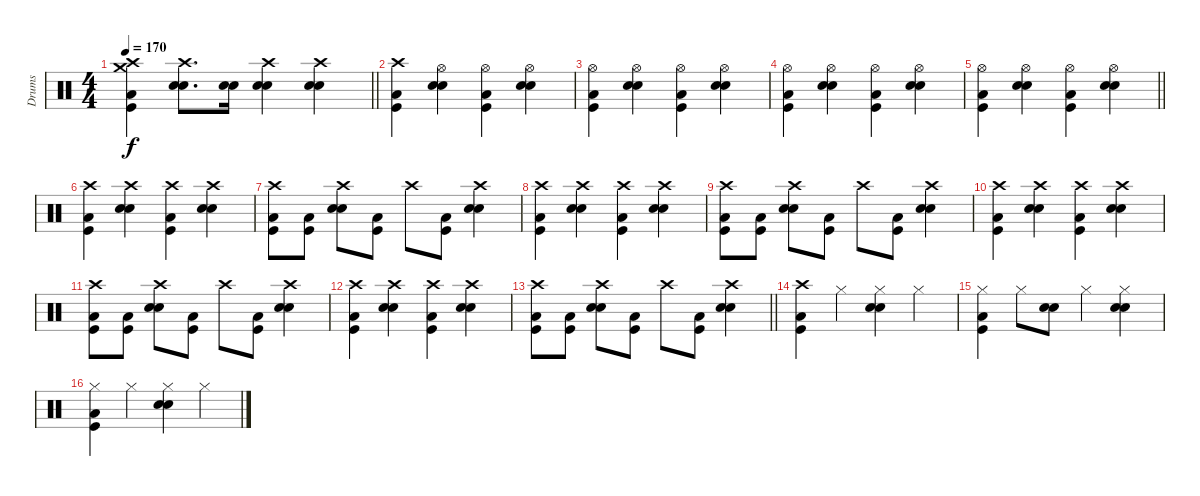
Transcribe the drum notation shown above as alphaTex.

\track ("Drums" "Drums") {instrument percussion}
\staff {score}
\articulation defaults
\ts (4 4)
\tempo 170
\clef neutral
\barLineRight lightlight
\ks c
("Crash high (hit)" "Crash medium (hit)" "Low Tom (hit)" "Kick (hit)").4{dy f} ("Crash high (hit)" "Snare (hit) 2" "Electric Snare (hit)").8{d} ("Snare (hit) 2" "Electric Snare (hit)").16 ("Crash high (hit)" "Snare (hit) 2" "Electric Snare (hit)").4 ("Crash high (hit)" "Snare (hit) 2" "Electric Snare (hit)").4 |
("Crash high (hit)" "Kick (hit)" "Low Tom (hit)").4 ("Hi-Hat (open)" "Snare (hit) 2" "Electric Snare (hit)").4 ("Hi-Hat (open)" "Kick (hit)" "Low Tom (hit)").4 ("Hi-Hat (open)" "Snare (hit) 2" "Electric Snare (hit)").4 |
("Hi-Hat (open)" "Kick (hit)" "Low Tom (hit)").4 ("Hi-Hat (open)" "Snare (hit) 2" "Electric Snare (hit)").4 ("Hi-Hat (open)" "Kick (hit)" "Low Tom (hit)").4 ("Hi-Hat (open)" "Snare (hit) 2" "Electric Snare (hit)").4 |
("Hi-Hat (open)" "Kick (hit)" "Low Tom (hit)").4 ("Hi-Hat (open)" "Snare (hit) 2" "Electric Snare (hit)").4 ("Hi-Hat (open)" "Kick (hit)" "Low Tom (hit)").4 ("Hi-Hat (open)" "Snare (hit) 2" "Electric Snare (hit)").4 |
\barLineRight lightlight
("Hi-Hat (open)" "Kick (hit)" "Low Tom (hit)").4 ("Hi-Hat (open)" "Snare (hit) 2" "Electric Snare (hit)").4 ("Hi-Hat (open)" "Kick (hit)" "Low Tom (hit)").4 ("Hi-Hat (open)" "Snare (hit) 2" "Electric Snare (hit)").4 |
("Crash high (hit)" "Kick (hit)" "Low Tom (hit)").4 ("Crash high (hit)" "Snare (hit) 2" "Electric Snare (hit)").4 ("Crash high (hit)" "Kick (hit)" "Low Tom (hit)").4 ("Crash high (hit)" "Snare (hit) 2" "Electric Snare (hit)").4 |
("Crash high (hit)" "Kick (hit)" "Low Tom (hit)").8 ("Kick (hit)" "Low Tom (hit)").8 ("Crash high (hit)" "Snare (hit) 2" "Electric Snare (hit)").8 ("Kick (hit)" "Low Tom (hit)").8 "Crash high (hit)".8 ("Kick (hit)" "Low Tom (hit)").8 ("Crash high (hit)" "Snare (hit) 2" "Electric Snare (hit)").4 |
("Crash high (hit)" "Kick (hit)" "Low Tom (hit)").4 ("Crash high (hit)" "Snare (hit) 2" "Electric Snare (hit)").4 ("Crash high (hit)" "Kick (hit)" "Low Tom (hit)").4 ("Crash high (hit)" "Snare (hit) 2" "Electric Snare (hit)").4 |
("Crash high (hit)" "Kick (hit)" "Low Tom (hit)").8 ("Kick (hit)" "Low Tom (hit)").8 ("Crash high (hit)" "Snare (hit) 2" "Electric Snare (hit)").8 ("Kick (hit)" "Low Tom (hit)").8 "Crash high (hit)".8 ("Kick (hit)" "Low Tom (hit)").8 ("Crash high (hit)" "Snare (hit) 2" "Electric Snare (hit)").4 |
("Crash high (hit)" "Kick (hit)" "Low Tom (hit)").4 ("Crash high (hit)" "Snare (hit) 2" "Electric Snare (hit)").4 ("Crash high (hit)" "Kick (hit)" "Low Tom (hit)").4 ("Crash high (hit)" "Snare (hit) 2" "Electric Snare (hit)").4 |
("Crash high (hit)" "Kick (hit)" "Low Tom (hit)").8 ("Kick (hit)" "Low Tom (hit)").8 ("Crash high (hit)" "Snare (hit) 2" "Electric Snare (hit)").8 ("Kick (hit)" "Low Tom (hit)").8 "Crash high (hit)".8 ("Kick (hit)" "Low Tom (hit)").8 ("Crash high (hit)" "Snare (hit) 2" "Electric Snare (hit)").4 |
("Crash high (hit)" "Kick (hit)" "Low Tom (hit)").4 ("Crash high (hit)" "Snare (hit) 2" "Electric Snare (hit)").4 ("Crash high (hit)" "Kick (hit)" "Low Tom (hit)").4 ("Crash high (hit)" "Snare (hit) 2" "Electric Snare (hit)").4 |
\barLineRight lightlight
("Crash high (hit)" "Kick (hit)" "Low Tom (hit)").8 ("Kick (hit)" "Low Tom (hit)").8 ("Crash high (hit)" "Snare (hit) 2" "Electric Snare (hit)").8 ("Kick (hit)" "Low Tom (hit)").8 "Crash high (hit)".8 ("Kick (hit)" "Low Tom (hit)").8 ("Crash high (hit)" "Snare (hit) 2" "Electric Snare (hit)").4 |
("Crash high (hit)" "Kick (hit)" "Low Tom (hit)").4 "Hi-Hat (closed)".4 ("Hi-Hat (closed)" "Snare (hit) 2" "Electric Snare (hit)").4 "Hi-Hat (closed)".4 |
("Hi-Hat (closed)" "Kick (hit)" "Low Tom (hit)").4 "Hi-Hat (closed)".8 ("Snare (hit) 2" "Electric Snare (hit)").8 "Hi-Hat (closed)".4 ("Hi-Hat (closed)" "Snare (hit) 2" "Electric Snare (hit)").4 |
("Hi-Hat (closed)" "Kick (hit)" "Low Tom (hit)").4 "Hi-Hat (closed)".4 ("Hi-Hat (closed)" "Snare (hit) 2" "Electric Snare (hit)").4 "Hi-Hat (closed)".4
